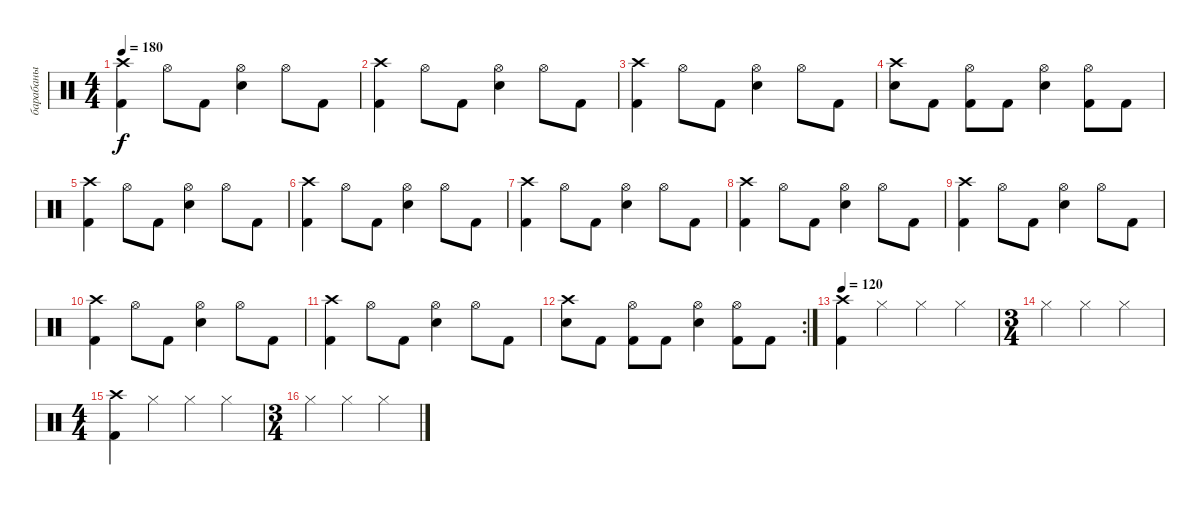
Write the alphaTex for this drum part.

\track ("барабаны" "барабаны") {instrument percussion}
\staff {score}
\articulation defaults
\ts (4 4)
\tempo 180
\clef neutral
\ks c
("Crash high (hit)" "Kick (hit) 2").4{dy f} "Hi-Hat (open)".8 "Kick (hit) 2".8 ("Hi-Hat (open)" "Snare (hit) 2").4 "Hi-Hat (open)".8 "Kick (hit) 2".8 |
("Crash high (hit)" "Kick (hit) 2").4 "Hi-Hat (open)".8 "Kick (hit) 2".8 ("Hi-Hat (open)" "Snare (hit) 2").4 "Hi-Hat (open)".8 "Kick (hit) 2".8 |
("Crash high (hit)" "Kick (hit) 2").4 "Hi-Hat (open)".8 "Kick (hit) 2".8 ("Hi-Hat (open)" "Snare (hit) 2").4 "Hi-Hat (open)".8 "Kick (hit) 2".8 |
("Crash high (hit)" "Snare (hit) 2").8 "Kick (hit) 2".8 ("Hi-Hat (open)" "Kick (hit) 2").8 "Kick (hit) 2".8 ("Hi-Hat (open)" "Snare (hit) 2").4 ("Hi-Hat (open)" "Kick (hit) 2").8 "Kick (hit) 2".8 |
("Crash high (hit)" "Kick (hit) 2").4 "Hi-Hat (open)".8 "Kick (hit) 2".8 ("Hi-Hat (open)" "Snare (hit) 2").4 "Hi-Hat (open)".8 "Kick (hit) 2".8 |
("Crash high (hit)" "Kick (hit) 2").4 "Hi-Hat (open)".8 "Kick (hit) 2".8 ("Hi-Hat (open)" "Snare (hit) 2").4 "Hi-Hat (open)".8 "Kick (hit) 2".8 |
("Crash high (hit)" "Kick (hit) 2").4 "Hi-Hat (open)".8 "Kick (hit) 2".8 ("Hi-Hat (open)" "Snare (hit) 2").4 "Hi-Hat (open)".8 "Kick (hit) 2".8 |
("Crash high (hit)" "Kick (hit) 2").4 "Hi-Hat (open)".8 "Kick (hit) 2".8 ("Hi-Hat (open)" "Snare (hit) 2").4 "Hi-Hat (open)".8 "Kick (hit) 2".8 |
("Crash high (hit)" "Kick (hit) 2").4 "Hi-Hat (open)".8 "Kick (hit) 2".8 ("Hi-Hat (open)" "Snare (hit) 2").4 "Hi-Hat (open)".8 "Kick (hit) 2".8 |
("Crash high (hit)" "Kick (hit) 2").4 "Hi-Hat (open)".8 "Kick (hit) 2".8 ("Hi-Hat (open)" "Snare (hit) 2").4 "Hi-Hat (open)".8 "Kick (hit) 2".8 |
("Crash high (hit)" "Kick (hit) 2").4 "Hi-Hat (open)".8 "Kick (hit) 2".8 ("Hi-Hat (open)" "Snare (hit) 2").4 "Hi-Hat (open)".8 "Kick (hit) 2".8 |
\rc 2
("Crash high (hit)" "Snare (hit) 2").8 "Kick (hit) 2".8 ("Hi-Hat (open)" "Kick (hit) 2").8 "Kick (hit) 2".8 ("Hi-Hat (open)" "Snare (hit) 2").4 ("Hi-Hat (open)" "Kick (hit) 2").8 "Kick (hit) 2".8 |
\tempo 120
("Crash high (hit)" "Kick (hit) 2").4 "Hi-Hat (closed)".4 "Hi-Hat (closed)".4 "Hi-Hat (closed)".4 |
\ts (3 4)
"Hi-Hat (closed)".4 "Hi-Hat (closed)".4 "Hi-Hat (closed)".4 |
\ts (4 4)
("Crash high (hit)" "Kick (hit) 2").4 "Hi-Hat (closed)".4 "Hi-Hat (closed)".4 "Hi-Hat (closed)".4 |
\ts (3 4)
"Hi-Hat (closed)".4 "Hi-Hat (closed)".4 "Hi-Hat (closed)".4
